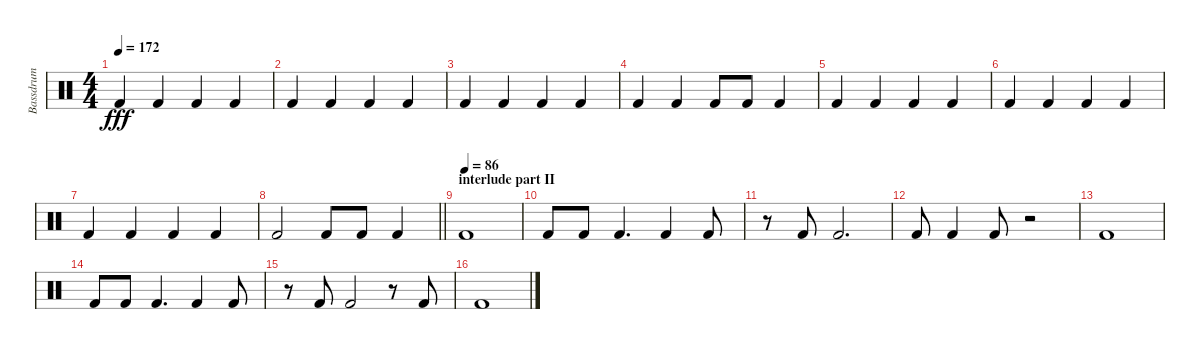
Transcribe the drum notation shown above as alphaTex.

\track ("Bassdrum" "Bassdrum") {instrument percussion}
\staff {score}
\articulation defaults
\ts (4 4)
\section ("" "")
\tempo 172
\clef neutral
\ks c "Kick (hit) 2".4{dy fff} "Kick (hit) 2".4 "Kick (hit) 2".4 "Kick (hit) 2".4
|
"Kick (hit) 2".4 "Kick (hit) 2".4 "Kick (hit) 2".4 "Kick (hit) 2".4 |
"Kick (hit) 2".4 "Kick (hit) 2".4 "Kick (hit) 2".4 "Kick (hit) 2".4 |
"Kick (hit) 2".4 "Kick (hit) 2".4 "Kick (hit) 2".8 "Kick (hit) 2".8 "Kick (hit) 2".4 |
"Kick (hit) 2".4 "Kick (hit) 2".4 "Kick (hit) 2".4 "Kick (hit) 2".4 |
"Kick (hit) 2".4 "Kick (hit) 2".4 "Kick (hit) 2".4 "Kick (hit) 2".4 |
"Kick (hit) 2".4 "Kick (hit) 2".4 "Kick (hit) 2".4 "Kick (hit) 2".4 |
\barLineRight lightlight "Kick (hit) 2".2 "Kick (hit) 2".8 "Kick (hit) 2".8 "Kick (hit) 2".4
|
\section ("" "interlude part II")
\tempo (86)
"Kick (hit) 2".1 |
"Kick (hit) 2".8 "Kick (hit) 2".8 "Kick (hit) 2".4{d} "Kick (hit) 2".4 "Kick (hit) 2".8 |
r.8 "Kick (hit) 2".8 "Kick (hit) 2".2{d} |
"Kick (hit) 2".8 "Kick (hit) 2".4 "Kick (hit) 2".8 r.2 |
"Kick (hit) 2".1 |
"Kick (hit) 2".8 "Kick (hit) 2".8 "Kick (hit) 2".4{d} "Kick (hit) 2".4 "Kick (hit) 2".8 |
r.8 "Kick (hit) 2".8 "Kick (hit) 2".2 r.8 "Kick (hit) 2".8 |
"Kick (hit) 2".1
